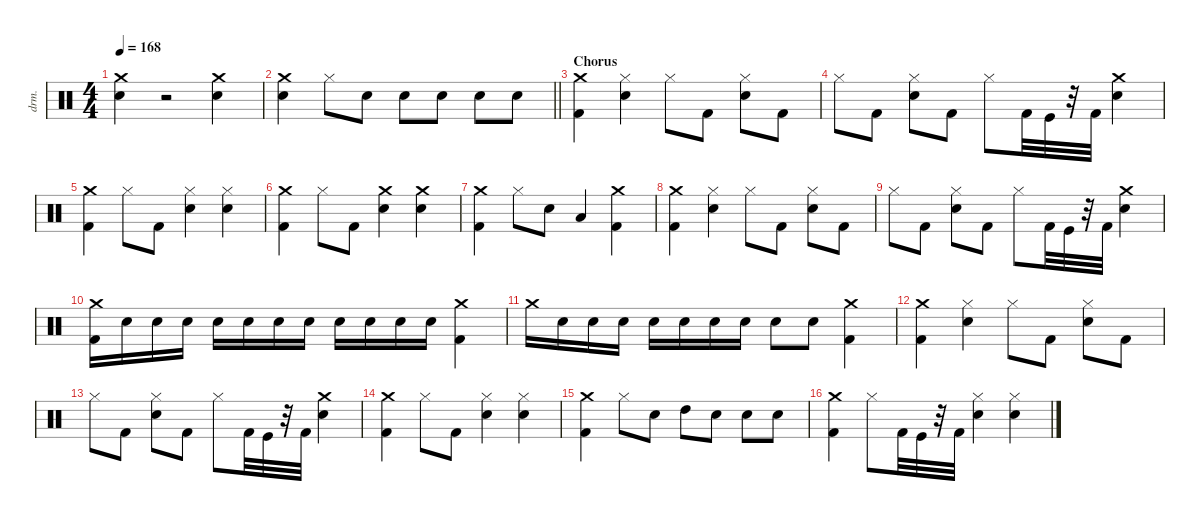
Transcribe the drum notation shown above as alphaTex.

\defaultSystemsLayout 4
\hideDynamics
\bracketExtendMode nobrackets
\otherSystemsTrackNameOrientation horizontal
\track ("Drums" "drm.") {instrument percussion}
\staff {score}
\articulation defaults
\ts (4 4)
\tempo 168
\clef neutral
\ks c
("Snare (hit) 2" "Crash medium (hit)").4{dy fff} r.2 ("Crash medium (hit)" "Snare (hit) 2").4 |
\barLineRight lightlight
("Snare (hit) 2" "Crash medium (hit)").4 "Hi-Hat (closed)".8 "Snare (hit) 2".8 "Snare (hit) 2".8 "Snare (hit) 2".8 "Snare (hit) 2".8 "Snare (hit) 2".8 |
\section ("" "Chorus")
("Kick (hit) 2" "Crash medium (hit)").4 ("Hi-Hat (closed)" "Snare (hit) 2").4 "Hi-Hat (closed)".8 "Kick (hit) 2".8 ("Snare (hit) 2" "Hi-Hat (closed)").8 "Kick (hit) 2".8 |
"Hi-Hat (closed)".8 "Kick (hit) 2".8 ("Snare (hit) 2" "Hi-Hat (closed)").8 "Kick (hit) 2".8 "Hi-Hat (closed)".8 "Kick (hit) 2".32 "Kick (hit)".32 r.32 "Kick (hit) 2".32 ("Crash medium (hit)" "Snare (hit) 2").4 |
("Kick (hit) 2" "Crash medium (hit)").4 "Hi-Hat (closed)".8 "Kick (hit) 2".8 ("Snare (hit) 2" "Hi-Hat (closed)").4 ("Hi-Hat (closed)" "Snare (hit) 2").4 |
("Kick (hit) 2" "Crash medium (hit)").4 "Hi-Hat (closed)".8 "Kick (hit) 2".8 ("Crash medium (hit)" "Snare (hit) 2").4 ("Snare (hit) 2" "Crash medium (hit)").4 |
("Kick (hit) 2" "Crash medium (hit)").4 "Hi-Hat (closed)".8 "Snare (hit) 2".8 "Low Tom (hit)".4 ("Kick (hit) 2" "Crash medium (hit)").4 |
("Kick (hit) 2" "Crash medium (hit)").4 ("Hi-Hat (closed)" "Snare (hit) 2").4 "Hi-Hat (closed)".8 "Kick (hit) 2".8 ("Snare (hit) 2" "Hi-Hat (closed)").8 "Kick (hit) 2".8 |
"Hi-Hat (closed)".8 "Kick (hit) 2".8 ("Snare (hit) 2" "Hi-Hat (closed)").8 "Kick (hit) 2".8 "Hi-Hat (closed)".8 "Kick (hit) 2".32 "Kick (hit)".32 r.32 "Kick (hit) 2".32 ("Crash medium (hit)" "Snare (hit) 2").4 |
("Kick (hit) 2" "Crash medium (hit)").16 "Snare (hit) 2".16 "Snare (hit) 2".16 "Snare (hit) 2".16 "Snare (hit) 2".16 "Snare (hit) 2".16 "Snare (hit) 2".16 "Snare (hit) 2".16 "Snare (hit) 2".16 "Snare (hit) 2".16 "Snare (hit) 2".16 "Snare (hit) 2".16 ("Kick (hit) 2" "Crash medium (hit)").4 |
"Crash medium (hit)".16 "Snare (hit) 2".16 "Snare (hit) 2".16 "Snare (hit) 2".16 "Snare (hit) 2".16 "Snare (hit) 2".16 "Snare (hit) 2".16 "Snare (hit) 2".16 "Snare (hit) 2".8 "Snare (hit) 2".8 ("Crash medium (hit)" "Kick (hit) 2").4 |
("Kick (hit) 2" "Crash medium (hit)").4 ("Hi-Hat (closed)" "Snare (hit) 2").4 "Hi-Hat (closed)".8 "Kick (hit) 2".8 ("Snare (hit) 2" "Hi-Hat (closed)").8 "Kick (hit) 2".8 |
"Hi-Hat (closed)".8 "Kick (hit) 2".8 ("Snare (hit) 2" "Hi-Hat (closed)").8 "Kick (hit) 2".8 "Hi-Hat (closed)".8 "Kick (hit) 2".32 "Kick (hit)".32 r.32 "Kick (hit) 2".32 ("Crash medium (hit)" "Snare (hit) 2").4 |
("Kick (hit) 2" "Crash medium (hit)").4 "Hi-Hat (closed)".8 "Kick (hit) 2".8 ("Snare (hit) 2" "Hi-Hat (closed)").4 ("Hi-Hat (closed)" "Snare (hit) 2").4 |
("Kick (hit) 2" "Crash medium (hit)").4 "Hi-Hat (closed)".8 "Snare (hit) 2".8 "High Tom (hit)".8 "Snare (hit) 2".8 "Snare (hit) 2".8 "Snare (hit) 2".8 |
("Kick (hit) 2" "Crash medium (hit)").4 "Hi-Hat (closed)".8 "Kick (hit) 2".32 "Kick (hit)".32 r.32 "Kick (hit) 2".32 ("Snare (hit) 2" "Hi-Hat (closed)").4 ("Hi-Hat (closed)" "Snare (hit) 2").4
